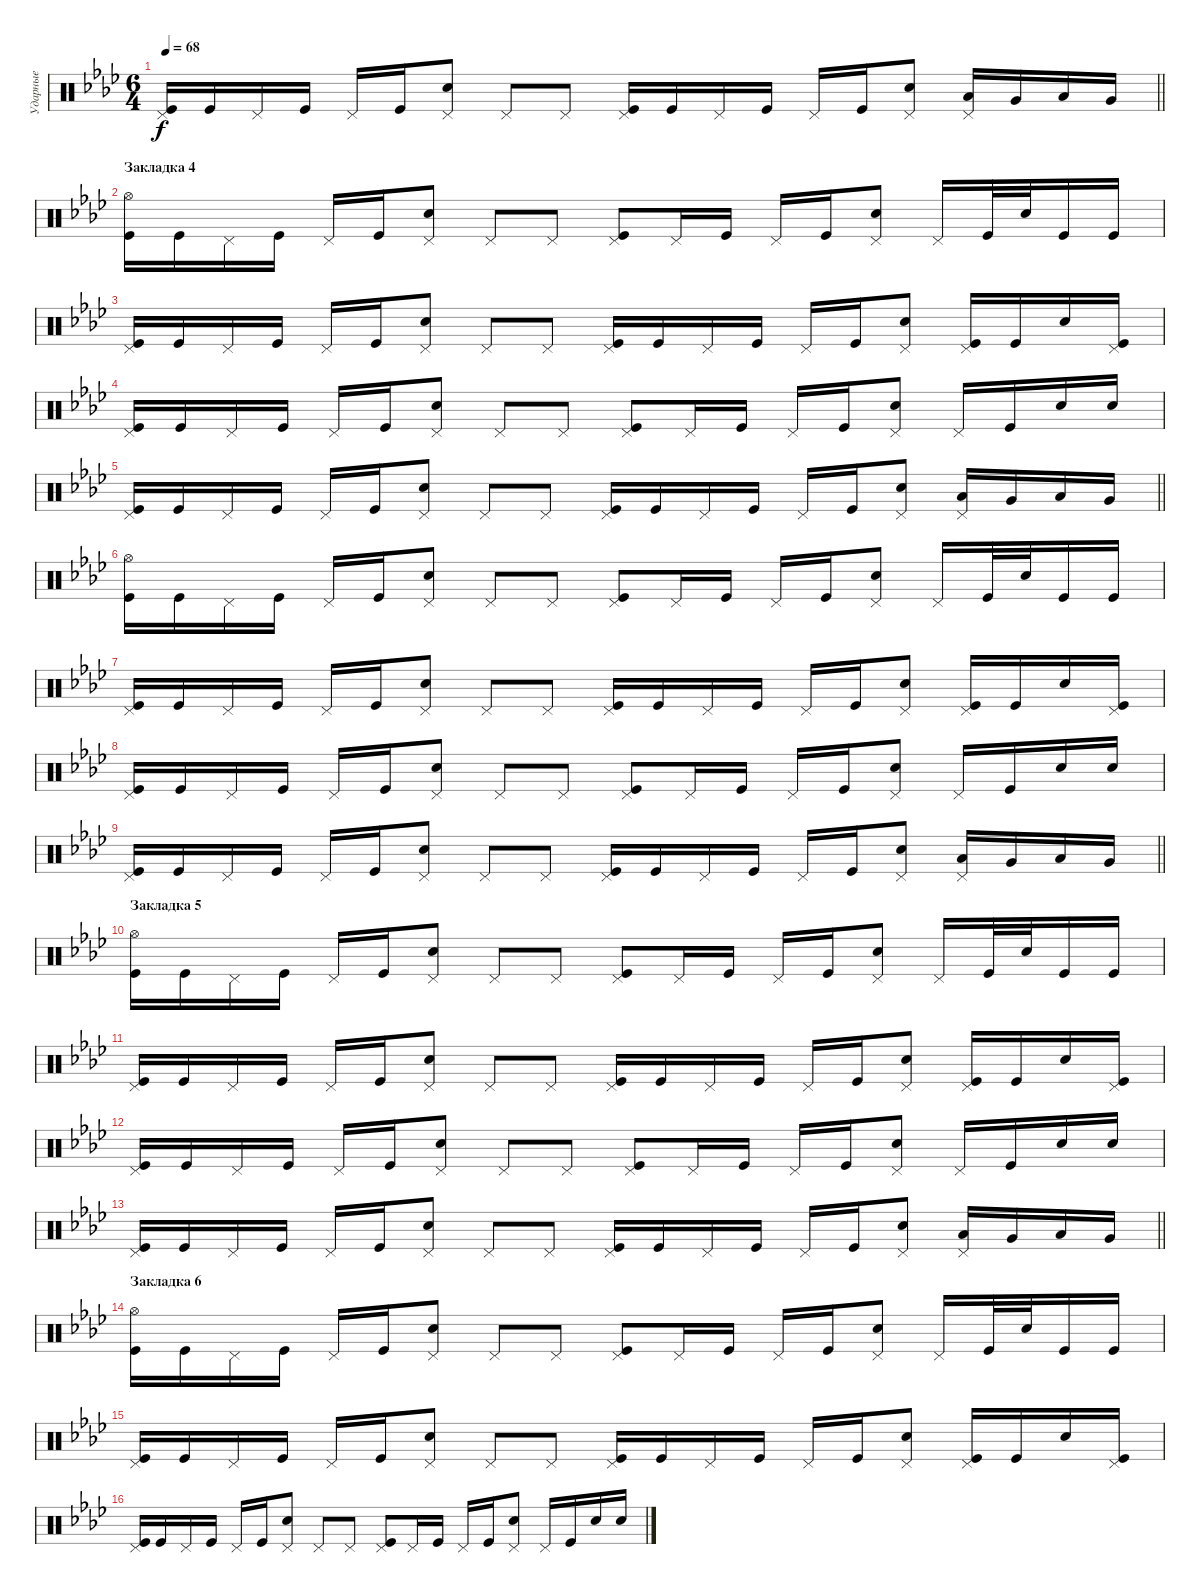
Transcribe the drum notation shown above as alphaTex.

\track ("Ударные" "Ударные") {instrument percussion}
\staff {score}
\articulation defaults
\ts (6 4)
\tempo 68
\clef neutral
\barLineRight lightlight
\ks fminor
("Kick (hit)" "Pedal Hi-Hat (hit)").16{dy f} "Kick (hit)".16 "Pedal Hi-Hat (hit)".16 "Kick (hit)".16 "Pedal Hi-Hat (hit)".16 "Kick (hit)".16 ("Snare (hit) 2" "Pedal Hi-Hat (hit)").8 "Pedal Hi-Hat (hit)".8 "Pedal Hi-Hat (hit)".8 ("Kick (hit)" "Pedal Hi-Hat (hit)").16 "Kick (hit)".16 "Pedal Hi-Hat (hit)".16 "Kick (hit)".16 "Pedal Hi-Hat (hit)".16 "Kick (hit)".16 ("Snare (hit) 2" "Pedal Hi-Hat (hit)").8 ("Low Floor Tom (hit)" "Pedal Hi-Hat (hit)").16 "Very Low Tom (hit)".16 "Low Tom (hit)".16 "Very Low Tom (hit)".16 |
\section ("" "Закладка 4")
("Kick (hit)" "Hi-Hat (open)").16 "Kick (hit)".16 "Pedal Hi-Hat (hit)".16 "Kick (hit)".16 "Pedal Hi-Hat (hit)".16 "Kick (hit)".16 ("Snare (hit) 2" "Pedal Hi-Hat (hit)").8 "Pedal Hi-Hat (hit)".8 "Pedal Hi-Hat (hit)".8 ("Kick (hit)" "Pedal Hi-Hat (hit)").8 "Pedal Hi-Hat (hit)".16 "Kick (hit)".16 "Pedal Hi-Hat (hit)".16 "Kick (hit)".16 ("Snare (hit) 2" "Pedal Hi-Hat (hit)").8 "Pedal Hi-Hat (hit)".16 "Kick (hit)".32 "Snare (hit) 2".32 "Kick (hit)".16 "Kick (hit)".16 |
("Kick (hit)" "Pedal Hi-Hat (hit)").16 "Kick (hit)".16 "Pedal Hi-Hat (hit)".16 "Kick (hit)".16 "Pedal Hi-Hat (hit)".16 "Kick (hit)".16 ("Snare (hit) 2" "Pedal Hi-Hat (hit)").8 "Pedal Hi-Hat (hit)".8 "Pedal Hi-Hat (hit)".8 ("Kick (hit)" "Pedal Hi-Hat (hit)").16 "Kick (hit)".16 "Pedal Hi-Hat (hit)".16 "Kick (hit)".16 "Pedal Hi-Hat (hit)".16 "Kick (hit)".16 ("Snare (hit) 2" "Pedal Hi-Hat (hit)").8 ("Kick (hit)" "Pedal Hi-Hat (hit)").16 "Kick (hit)".16 "Snare (hit) 2".16 ("Kick (hit)" "Pedal Hi-Hat (hit)").16 |
("Kick (hit)" "Pedal Hi-Hat (hit)").16 "Kick (hit)".16 "Pedal Hi-Hat (hit)".16 "Kick (hit)".16 "Pedal Hi-Hat (hit)".16 "Kick (hit)".16 ("Snare (hit) 2" "Pedal Hi-Hat (hit)").8 "Pedal Hi-Hat (hit)".8 "Pedal Hi-Hat (hit)".8 ("Kick (hit)" "Pedal Hi-Hat (hit)").8 "Pedal Hi-Hat (hit)".16 "Kick (hit)".16 "Pedal Hi-Hat (hit)".16 "Kick (hit)".16 ("Snare (hit) 2" "Pedal Hi-Hat (hit)").8 "Pedal Hi-Hat (hit)".16 "Kick (hit)".16 "Snare (hit) 2".16 "Snare (hit) 2".16 |
\barLineRight lightlight
("Kick (hit)" "Pedal Hi-Hat (hit)").16 "Kick (hit)".16 "Pedal Hi-Hat (hit)".16 "Kick (hit)".16 "Pedal Hi-Hat (hit)".16 "Kick (hit)".16 ("Snare (hit) 2" "Pedal Hi-Hat (hit)").8 "Pedal Hi-Hat (hit)".8 "Pedal Hi-Hat (hit)".8 ("Kick (hit)" "Pedal Hi-Hat (hit)").16 "Kick (hit)".16 "Pedal Hi-Hat (hit)".16 "Kick (hit)".16 "Pedal Hi-Hat (hit)".16 "Kick (hit)".16 ("Snare (hit) 2" "Pedal Hi-Hat (hit)").8 ("Low Floor Tom (hit)" "Pedal Hi-Hat (hit)").16 "Very Low Tom (hit)".16 "Low Tom (hit)".16 "Very Low Tom (hit)".16 |
("Kick (hit)" "Hi-Hat (open)").16 "Kick (hit)".16 "Pedal Hi-Hat (hit)".16 "Kick (hit)".16 "Pedal Hi-Hat (hit)".16 "Kick (hit)".16 ("Snare (hit) 2" "Pedal Hi-Hat (hit)").8 "Pedal Hi-Hat (hit)".8 "Pedal Hi-Hat (hit)".8 ("Kick (hit)" "Pedal Hi-Hat (hit)").8 "Pedal Hi-Hat (hit)".16 "Kick (hit)".16 "Pedal Hi-Hat (hit)".16 "Kick (hit)".16 ("Snare (hit) 2" "Pedal Hi-Hat (hit)").8 "Pedal Hi-Hat (hit)".16 "Kick (hit)".32 "Snare (hit) 2".32 "Kick (hit)".16 "Kick (hit)".16 |
("Kick (hit)" "Pedal Hi-Hat (hit)").16 "Kick (hit)".16 "Pedal Hi-Hat (hit)".16 "Kick (hit)".16 "Pedal Hi-Hat (hit)".16 "Kick (hit)".16 ("Snare (hit) 2" "Pedal Hi-Hat (hit)").8 "Pedal Hi-Hat (hit)".8 "Pedal Hi-Hat (hit)".8 ("Kick (hit)" "Pedal Hi-Hat (hit)").16 "Kick (hit)".16 "Pedal Hi-Hat (hit)".16 "Kick (hit)".16 "Pedal Hi-Hat (hit)".16 "Kick (hit)".16 ("Snare (hit) 2" "Pedal Hi-Hat (hit)").8 ("Kick (hit)" "Pedal Hi-Hat (hit)").16 "Kick (hit)".16 "Snare (hit) 2".16 ("Kick (hit)" "Pedal Hi-Hat (hit)").16 |
("Kick (hit)" "Pedal Hi-Hat (hit)").16 "Kick (hit)".16 "Pedal Hi-Hat (hit)".16 "Kick (hit)".16 "Pedal Hi-Hat (hit)".16 "Kick (hit)".16 ("Snare (hit) 2" "Pedal Hi-Hat (hit)").8 "Pedal Hi-Hat (hit)".8 "Pedal Hi-Hat (hit)".8 ("Kick (hit)" "Pedal Hi-Hat (hit)").8 "Pedal Hi-Hat (hit)".16 "Kick (hit)".16 "Pedal Hi-Hat (hit)".16 "Kick (hit)".16 ("Snare (hit) 2" "Pedal Hi-Hat (hit)").8 "Pedal Hi-Hat (hit)".16 "Kick (hit)".16 "Snare (hit) 2".16 "Snare (hit) 2".16 |
\barLineRight lightlight
("Kick (hit)" "Pedal Hi-Hat (hit)").16 "Kick (hit)".16 "Pedal Hi-Hat (hit)".16 "Kick (hit)".16 "Pedal Hi-Hat (hit)".16 "Kick (hit)".16 ("Snare (hit) 2" "Pedal Hi-Hat (hit)").8 "Pedal Hi-Hat (hit)".8 "Pedal Hi-Hat (hit)".8 ("Kick (hit)" "Pedal Hi-Hat (hit)").16 "Kick (hit)".16 "Pedal Hi-Hat (hit)".16 "Kick (hit)".16 "Pedal Hi-Hat (hit)".16 "Kick (hit)".16 ("Snare (hit) 2" "Pedal Hi-Hat (hit)").8 ("Low Floor Tom (hit)" "Pedal Hi-Hat (hit)").16 "Very Low Tom (hit)".16 "Low Tom (hit)".16 "Very Low Tom (hit)".16 |
\section ("" "Закладка 5")
("Kick (hit)" "Hi-Hat (open)").16 "Kick (hit)".16 "Pedal Hi-Hat (hit)".16 "Kick (hit)".16 "Pedal Hi-Hat (hit)".16 "Kick (hit)".16 ("Snare (hit) 2" "Pedal Hi-Hat (hit)").8 "Pedal Hi-Hat (hit)".8 "Pedal Hi-Hat (hit)".8 ("Kick (hit)" "Pedal Hi-Hat (hit)").8 "Pedal Hi-Hat (hit)".16 "Kick (hit)".16 "Pedal Hi-Hat (hit)".16 "Kick (hit)".16 ("Snare (hit) 2" "Pedal Hi-Hat (hit)").8 "Pedal Hi-Hat (hit)".16 "Kick (hit)".32 "Snare (hit) 2".32 "Kick (hit)".16 "Kick (hit)".16 |
("Kick (hit)" "Pedal Hi-Hat (hit)").16 "Kick (hit)".16 "Pedal Hi-Hat (hit)".16 "Kick (hit)".16 "Pedal Hi-Hat (hit)".16 "Kick (hit)".16 ("Snare (hit) 2" "Pedal Hi-Hat (hit)").8 "Pedal Hi-Hat (hit)".8 "Pedal Hi-Hat (hit)".8 ("Kick (hit)" "Pedal Hi-Hat (hit)").16 "Kick (hit)".16 "Pedal Hi-Hat (hit)".16 "Kick (hit)".16 "Pedal Hi-Hat (hit)".16 "Kick (hit)".16 ("Snare (hit) 2" "Pedal Hi-Hat (hit)").8 ("Kick (hit)" "Pedal Hi-Hat (hit)").16 "Kick (hit)".16 "Snare (hit) 2".16 ("Kick (hit)" "Pedal Hi-Hat (hit)").16 |
("Kick (hit)" "Pedal Hi-Hat (hit)").16 "Kick (hit)".16 "Pedal Hi-Hat (hit)".16 "Kick (hit)".16 "Pedal Hi-Hat (hit)".16 "Kick (hit)".16 ("Snare (hit) 2" "Pedal Hi-Hat (hit)").8 "Pedal Hi-Hat (hit)".8 "Pedal Hi-Hat (hit)".8 ("Kick (hit)" "Pedal Hi-Hat (hit)").8 "Pedal Hi-Hat (hit)".16 "Kick (hit)".16 "Pedal Hi-Hat (hit)".16 "Kick (hit)".16 ("Snare (hit) 2" "Pedal Hi-Hat (hit)").8 "Pedal Hi-Hat (hit)".16 "Kick (hit)".16 "Snare (hit) 2".16 "Snare (hit) 2".16 |
\barLineRight lightlight
("Kick (hit)" "Pedal Hi-Hat (hit)").16 "Kick (hit)".16 "Pedal Hi-Hat (hit)".16 "Kick (hit)".16 "Pedal Hi-Hat (hit)".16 "Kick (hit)".16 ("Snare (hit) 2" "Pedal Hi-Hat (hit)").8 "Pedal Hi-Hat (hit)".8 "Pedal Hi-Hat (hit)".8 ("Kick (hit)" "Pedal Hi-Hat (hit)").16 "Kick (hit)".16 "Pedal Hi-Hat (hit)".16 "Kick (hit)".16 "Pedal Hi-Hat (hit)".16 "Kick (hit)".16 ("Snare (hit) 2" "Pedal Hi-Hat (hit)").8 ("Low Floor Tom (hit)" "Pedal Hi-Hat (hit)").16 "Very Low Tom (hit)".16 "Low Tom (hit)".16 "Very Low Tom (hit)".16 |
\section ("" "Закладка 6")
("Kick (hit)" "Hi-Hat (open)").16 "Kick (hit)".16 "Pedal Hi-Hat (hit)".16 "Kick (hit)".16 "Pedal Hi-Hat (hit)".16 "Kick (hit)".16 ("Snare (hit) 2" "Pedal Hi-Hat (hit)").8 "Pedal Hi-Hat (hit)".8 "Pedal Hi-Hat (hit)".8 ("Kick (hit)" "Pedal Hi-Hat (hit)").8 "Pedal Hi-Hat (hit)".16 "Kick (hit)".16 "Pedal Hi-Hat (hit)".16 "Kick (hit)".16 ("Snare (hit) 2" "Pedal Hi-Hat (hit)").8 "Pedal Hi-Hat (hit)".16 "Kick (hit)".32 "Snare (hit) 2".32 "Kick (hit)".16 "Kick (hit)".16 |
("Kick (hit)" "Pedal Hi-Hat (hit)").16 "Kick (hit)".16 "Pedal Hi-Hat (hit)".16 "Kick (hit)".16 "Pedal Hi-Hat (hit)".16 "Kick (hit)".16 ("Snare (hit) 2" "Pedal Hi-Hat (hit)").8 "Pedal Hi-Hat (hit)".8 "Pedal Hi-Hat (hit)".8 ("Kick (hit)" "Pedal Hi-Hat (hit)").16 "Kick (hit)".16 "Pedal Hi-Hat (hit)".16 "Kick (hit)".16 "Pedal Hi-Hat (hit)".16 "Kick (hit)".16 ("Snare (hit) 2" "Pedal Hi-Hat (hit)").8 ("Kick (hit)" "Pedal Hi-Hat (hit)").16 "Kick (hit)".16 "Snare (hit) 2".16 ("Kick (hit)" "Pedal Hi-Hat (hit)").16 |
("Kick (hit)" "Pedal Hi-Hat (hit)").16 "Kick (hit)".16 "Pedal Hi-Hat (hit)".16 "Kick (hit)".16 "Pedal Hi-Hat (hit)".16 "Kick (hit)".16 ("Snare (hit) 2" "Pedal Hi-Hat (hit)").8 "Pedal Hi-Hat (hit)".8 "Pedal Hi-Hat (hit)".8 ("Kick (hit)" "Pedal Hi-Hat (hit)").8 "Pedal Hi-Hat (hit)".16 "Kick (hit)".16 "Pedal Hi-Hat (hit)".16 "Kick (hit)".16 ("Snare (hit) 2" "Pedal Hi-Hat (hit)").8 "Pedal Hi-Hat (hit)".16 "Kick (hit)".16 "Snare (hit) 2".16 "Snare (hit) 2".16
